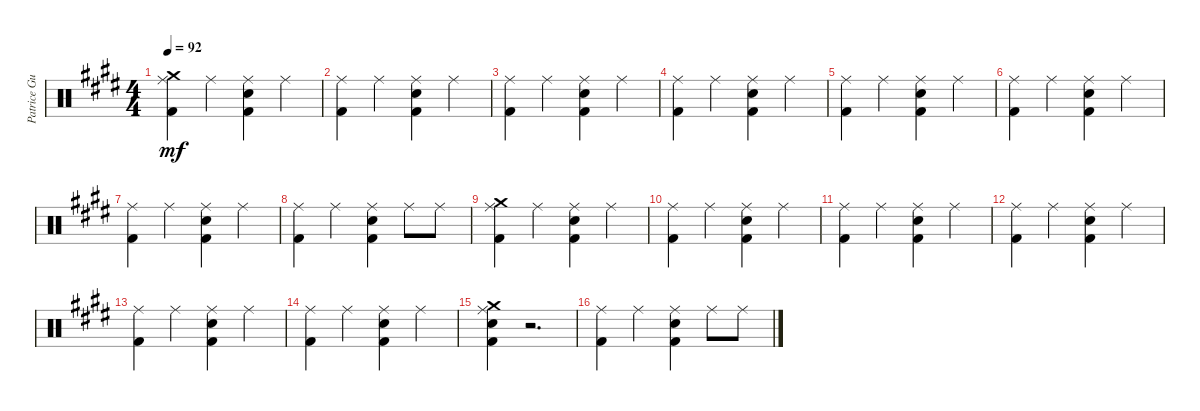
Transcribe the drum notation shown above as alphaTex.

\track ("Patrice Guers" "Patrice Gu") {instrument percussion}
\staff {score}
\articulation defaults
\ts (4 4)
\tempo 92
\clef neutral
\ks c#minor
("Ride (middle)" "Kick (hit) 2" "Crash medium (hit)").4{dy mf} "Ride (middle)".4 ("Ride (middle)" "Kick (hit) 2" "Snare (hit) 2").4 "Ride (middle)".4 |
("Ride (middle)" "Kick (hit) 2").4 "Ride (middle)".4 ("Ride (middle)" "Kick (hit) 2" "Snare (hit) 2").4 "Ride (middle)".4 |
("Ride (middle)" "Kick (hit) 2").4 "Ride (middle)".4 ("Ride (middle)" "Kick (hit) 2" "Snare (hit) 2").4 "Ride (middle)".4 |
("Ride (middle)" "Kick (hit) 2").4 "Ride (middle)".4 ("Ride (middle)" "Kick (hit) 2" "Snare (hit) 2").4 "Ride (middle)".4 |
("Ride (middle)" "Kick (hit) 2").4 "Ride (middle)".4 ("Ride (middle)" "Kick (hit) 2" "Snare (hit) 2").4 "Ride (middle)".4 |
("Ride (middle)" "Kick (hit) 2").4 "Ride (middle)".4 ("Ride (middle)" "Kick (hit) 2" "Snare (hit) 2").4 "Ride (middle)".4 |
("Ride (middle)" "Kick (hit) 2").4 "Ride (middle)".4 ("Ride (middle)" "Kick (hit) 2" "Snare (hit) 2").4 "Ride (middle)".4 |
("Ride (middle)" "Kick (hit) 2").4 "Ride (middle)".4 ("Ride (middle)" "Kick (hit) 2" "Snare (hit) 2").4 "Ride (middle)".8 "Ride (middle)".8 |
("Ride (middle)" "Kick (hit) 2" "Crash medium (hit)").4 "Ride (middle)".4 ("Ride (middle)" "Kick (hit) 2" "Snare (hit) 2").4 "Ride (middle)".4 |
("Ride (middle)" "Kick (hit) 2").4 "Ride (middle)".4 ("Ride (middle)" "Kick (hit) 2" "Snare (hit) 2").4 "Ride (middle)".4 |
("Ride (middle)" "Kick (hit) 2").4 "Ride (middle)".4 ("Ride (middle)" "Kick (hit) 2" "Snare (hit) 2").4 "Ride (middle)".4 |
("Ride (middle)" "Kick (hit) 2").4 "Ride (middle)".4 ("Ride (middle)" "Kick (hit) 2" "Snare (hit) 2").4 "Ride (middle)".4 |
("Ride (middle)" "Kick (hit) 2").4 "Ride (middle)".4 ("Ride (middle)" "Kick (hit) 2" "Snare (hit) 2").4 "Ride (middle)".4 |
("Ride (middle)" "Kick (hit) 2").4 "Ride (middle)".4 ("Ride (middle)" "Kick (hit) 2" "Snare (hit) 2").4 "Ride (middle)".4 |
("Ride (middle)" "Kick (hit) 2" "Snare (hit) 2" "Crash medium (hit)").4 r.2{d} |
("Ride (middle)" "Kick (hit) 2").4 "Ride (middle)".4 ("Ride (middle)" "Kick (hit) 2" "Snare (hit) 2").4 "Ride (middle)".8 "Ride (middle)".8
